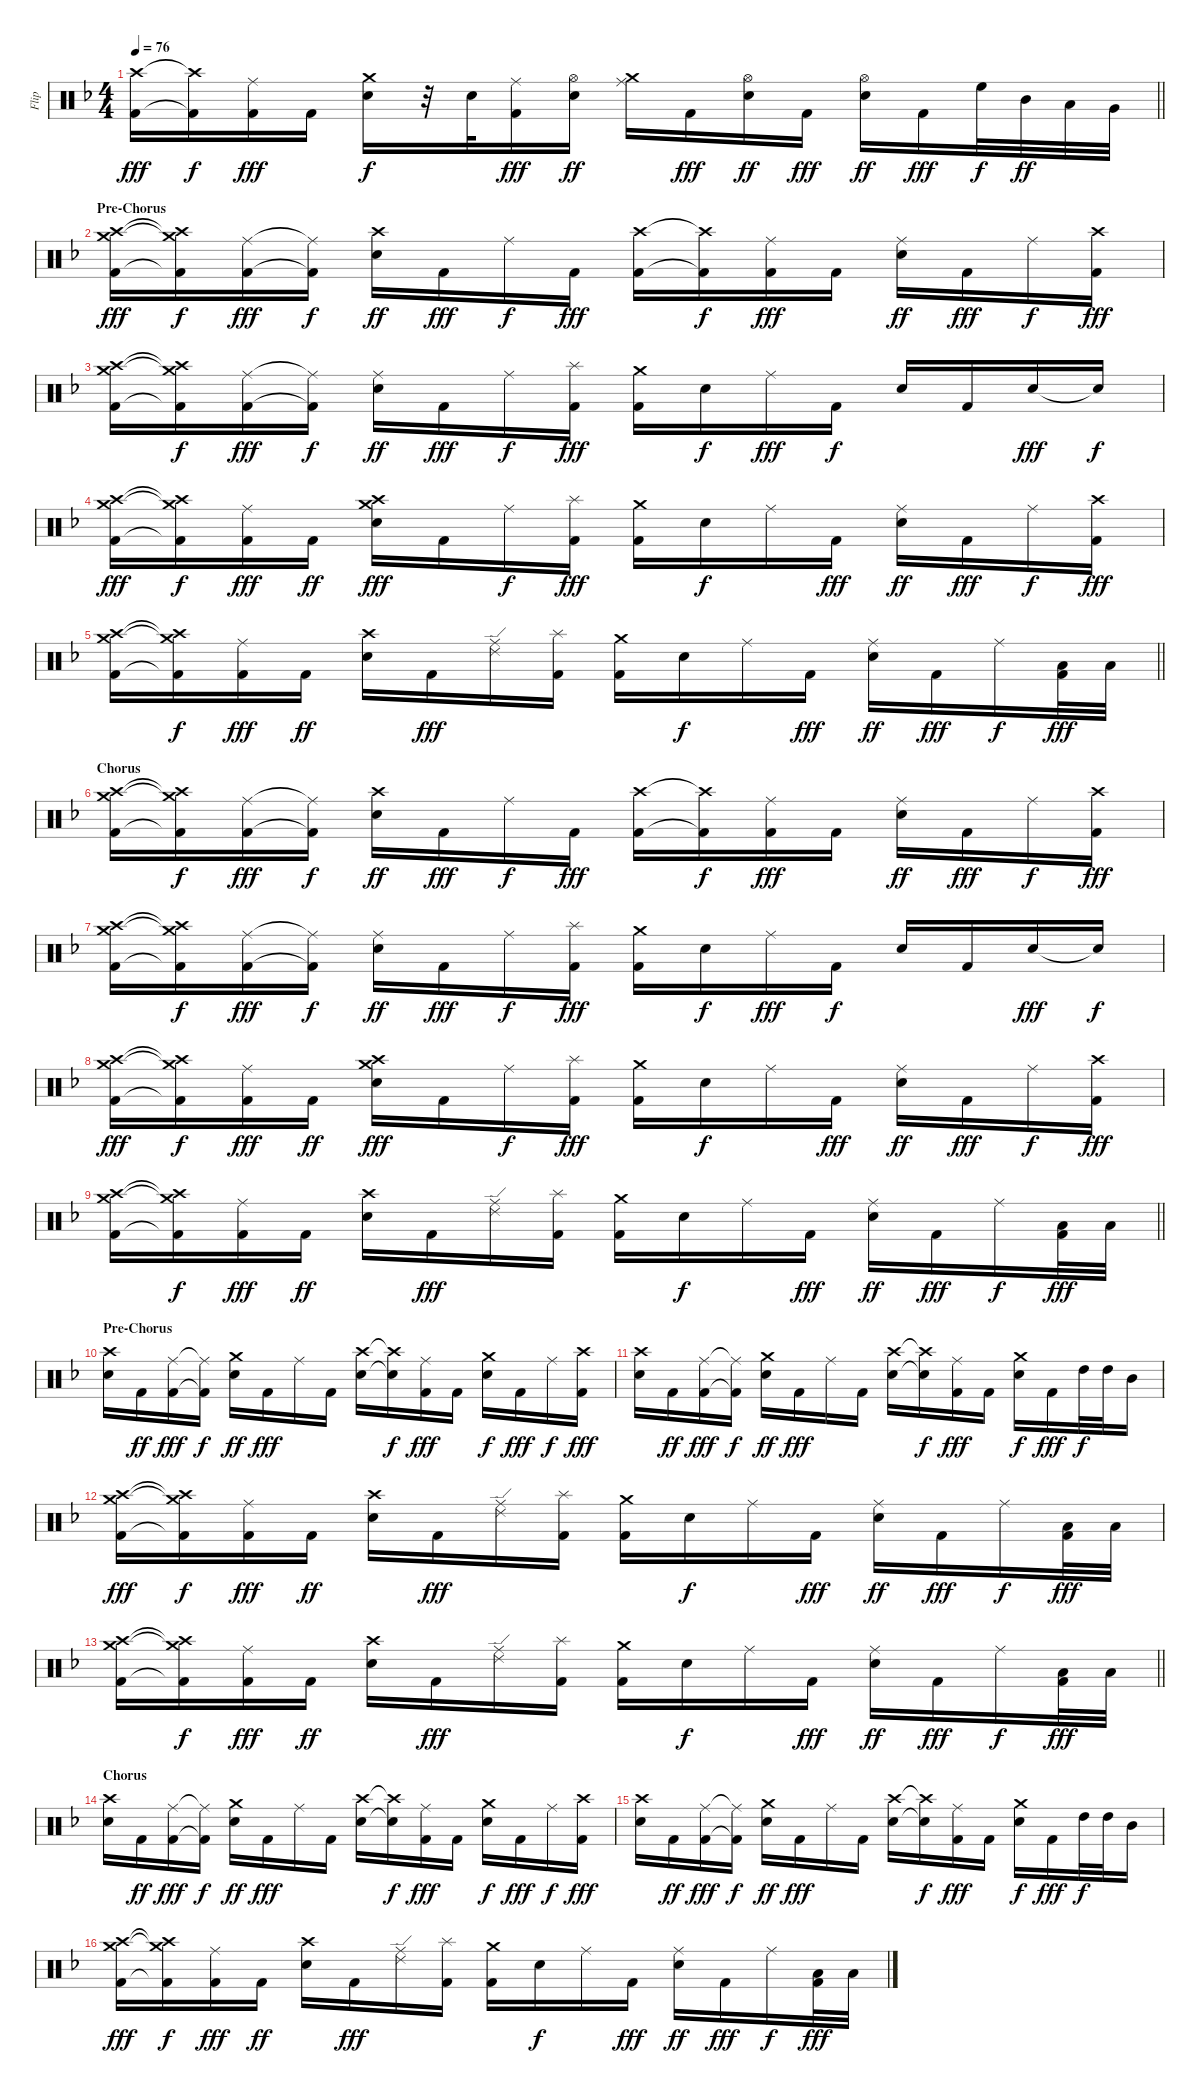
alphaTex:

\track ("Flip" "Flip") {instrument percussion}
\staff {score}
\articulation defaults
\ts (4 4)
\tempo 76
\clef neutral
\barLineRight lightlight
\ks f
("Crash high (hit)" "Kick (hit) 2").16{dy fff} ("Crash high (hit)"{t} "Kick (hit) 2"{t}).16{dy f} ("Ride (middle)" "Kick (hit) 2").16{dy fff} "Kick (hit) 2".16 ("Crash medium (hit)" "Snare (hit) 2").16{dy f} r.32 "Snare (hit) 2".32 ("Ride (middle)" "Kick (hit) 2").16{dy fff} ("Hi-Hat (open)" "Snare (hit) 2").16{dy ff} ("Crash medium (hit)" "Ride (middle)").16 "Kick (hit) 2".16{dy fff} ("Hi-Hat (open)" "Snare (hit) 2").16{dy ff} "Kick (hit) 2".16{dy fff} ("Hi-Hat (open)" "Snare (hit) 2").16{dy ff} "Kick (hit) 2".16{dy fff} "High Floor Tom (hit)".32{dy f} "Mid Tom (hit)".32{dy ff} "Low Tom (hit)".32 "Very Low Tom (hit)".32 |
\section ("" "Pre-Chorus")
("Crash medium (hit)" "Crash high (hit)" "Kick (hit) 2").16{dy fff} ("Crash medium (hit)"{t} "Crash high (hit)"{t} "Kick (hit) 2"{t}).16{dy f} ("Ride (middle)" "Kick (hit) 2").16{dy fff} ("Ride (middle)"{t} "Kick (hit) 2"{t}).16{dy f} ("Crash high (hit)" "Snare (hit) 2").16{dy ff} "Kick (hit) 2".16{dy fff} "Ride (middle)".16{dy f} "Kick (hit) 2".16{dy fff} ("Crash high (hit)" "Kick (hit) 2").16 ("Crash high (hit)"{t} "Kick (hit) 2"{t}).16{dy f} ("Ride (middle)" "Kick (hit) 2").16{dy fff} "Kick (hit) 2".16 ("Ride (middle)" "Snare (hit) 2").16{dy ff} "Kick (hit) 2".16{dy fff} "Ride (middle)".16{dy f} ("Crash high (hit)" "Kick (hit) 2").16{dy fff} |
("Crash medium (hit)" "Crash high (hit)" "Kick (hit) 2").16 ("Crash medium (hit)"{t} "Crash high (hit)"{t} "Kick (hit) 2"{t}).16{dy f} ("Ride (middle)" "Kick (hit) 2").16{dy fff} ("Ride (middle)"{t} "Kick (hit) 2"{t}).16{dy f} ("Ride (middle)" "Snare (hit) 2").16{dy ff} "Kick (hit) 2".16{dy fff} "Ride (middle)".16{dy f} ("Splash (hit)" "Kick (hit) 2").16{dy fff} ("Crash medium (hit)" "Kick (hit) 2").16 "Snare (hit) 2".16{dy f} "Ride (middle)".16{dy fff} "Kick (hit) 2".16{dy f} "Snare (hit) 2".16 "Kick (hit) 2".16 "Snare (hit) 2".16{dy fff} "Snare (hit) 2"{t}.16{dy f} |
("Crash medium (hit)" "Crash high (hit)" "Kick (hit) 2").16{dy fff} ("Crash medium (hit)"{t} "Crash high (hit)"{t} "Kick (hit) 2"{t}).16{dy f} ("Ride (middle)" "Kick (hit) 2").16{dy fff} "Kick (hit) 2".16{dy ff} ("Crash high (hit)" "Crash medium (hit)" "Snare (hit) 2").16{dy fff} "Kick (hit) 2".16 "Ride (middle)".16{dy f} ("Splash (hit)" "Kick (hit) 2").16{dy fff} ("Crash medium (hit)" "Kick (hit) 2").16 "Snare (hit) 2".16{dy f} "Ride (middle)".16 "Kick (hit) 2".16{dy fff} ("Ride (middle)" "Snare (hit) 2").16{dy ff} "Kick (hit) 2".16{dy fff} "Ride (middle)".16{dy f} ("Crash high (hit)" "Kick (hit) 2").16{dy fff} |
\barLineRight lightlight
("Crash medium (hit)" "Crash high (hit)" "Kick (hit) 2").16 ("Crash medium (hit)"{t} "Crash high (hit)"{t} "Kick (hit) 2"{t}).16{dy f} ("Ride (middle)" "Kick (hit) 2").16{dy fff} "Kick (hit) 2".16{dy ff} ("Crash high (hit)" "Snare (hit) 2").16 "Kick (hit) 2".16{dy fff} ("Ride (middle)" "Ride (edge) 2").16 ("Splash (hit)" "Kick (hit) 2").16 ("Crash medium (hit)" "Kick (hit) 2").16 "Snare (hit) 2".16{dy f} "Ride (middle)".16 "Kick (hit) 2".16{dy fff} ("Ride (middle)" "Snare (hit) 2").16{dy ff} "Kick (hit) 2".16{dy fff} "Ride (middle)".16{dy f} ("Low Tom (hit)" "Kick (hit) 2").32{dy fff} "Low Tom (hit)".32 |
\section ("" "Chorus")
("Crash medium (hit)" "Crash high (hit)" "Kick (hit) 2").16 ("Crash medium (hit)"{t} "Crash high (hit)"{t} "Kick (hit) 2"{t}).16{dy f} ("Ride (middle)" "Kick (hit) 2").16{dy fff} ("Ride (middle)"{t} "Kick (hit) 2"{t}).16{dy f} ("Crash high (hit)" "Snare (hit) 2").16{dy ff} "Kick (hit) 2".16{dy fff} "Ride (middle)".16{dy f} "Kick (hit) 2".16{dy fff} ("Crash high (hit)" "Kick (hit) 2").16 ("Crash high (hit)"{t} "Kick (hit) 2"{t}).16{dy f} ("Ride (middle)" "Kick (hit) 2").16{dy fff} "Kick (hit) 2".16 ("Ride (middle)" "Snare (hit) 2").16{dy ff} "Kick (hit) 2".16{dy fff} "Ride (middle)".16{dy f} ("Crash high (hit)" "Kick (hit) 2").16{dy fff} |
("Crash medium (hit)" "Crash high (hit)" "Kick (hit) 2").16 ("Crash medium (hit)"{t} "Crash high (hit)"{t} "Kick (hit) 2"{t}).16{dy f} ("Ride (middle)" "Kick (hit) 2").16{dy fff} ("Ride (middle)"{t} "Kick (hit) 2"{t}).16{dy f} ("Ride (middle)" "Snare (hit) 2").16{dy ff} "Kick (hit) 2".16{dy fff} "Ride (middle)".16{dy f} ("Splash (hit)" "Kick (hit) 2").16{dy fff} ("Crash medium (hit)" "Kick (hit) 2").16 "Snare (hit) 2".16{dy f} "Ride (middle)".16{dy fff} "Kick (hit) 2".16{dy f} "Snare (hit) 2".16 "Kick (hit) 2".16 "Snare (hit) 2".16{dy fff} "Snare (hit) 2"{t}.16{dy f} |
("Crash medium (hit)" "Crash high (hit)" "Kick (hit) 2").16{dy fff} ("Crash medium (hit)"{t} "Crash high (hit)"{t} "Kick (hit) 2"{t}).16{dy f} ("Ride (middle)" "Kick (hit) 2").16{dy fff} "Kick (hit) 2".16{dy ff} ("Crash high (hit)" "Crash medium (hit)" "Snare (hit) 2").16{dy fff} "Kick (hit) 2".16 "Ride (middle)".16{dy f} ("Splash (hit)" "Kick (hit) 2").16{dy fff} ("Crash medium (hit)" "Kick (hit) 2").16 "Snare (hit) 2".16{dy f} "Ride (middle)".16 "Kick (hit) 2".16{dy fff} ("Ride (middle)" "Snare (hit) 2").16{dy ff} "Kick (hit) 2".16{dy fff} "Ride (middle)".16{dy f} ("Crash high (hit)" "Kick (hit) 2").16{dy fff} |
\barLineRight lightlight
("Crash medium (hit)" "Crash high (hit)" "Kick (hit) 2").16 ("Crash medium (hit)"{t} "Crash high (hit)"{t} "Kick (hit) 2"{t}).16{dy f} ("Ride (middle)" "Kick (hit) 2").16{dy fff} "Kick (hit) 2".16{dy ff} ("Crash high (hit)" "Snare (hit) 2").16 "Kick (hit) 2".16{dy fff} ("Ride (middle)" "Ride (edge) 2").16 ("Splash (hit)" "Kick (hit) 2").16 ("Crash medium (hit)" "Kick (hit) 2").16 "Snare (hit) 2".16{dy f} "Ride (middle)".16 "Kick (hit) 2".16{dy fff} ("Ride (middle)" "Snare (hit) 2").16{dy ff} "Kick (hit) 2".16{dy fff} "Ride (middle)".16{dy f} ("Low Tom (hit)" "Kick (hit) 2").32{dy fff} "Low Tom (hit)".32 |
\section ("" "Pre-Chorus")
("Crash high (hit)" "Snare (hit) 2").16 "Kick (hit) 2".16{dy ff} ("Ride (middle)" "Kick (hit) 2").16{dy fff} ("Ride (middle)"{t} "Kick (hit) 2"{t}).16{dy f} ("Crash medium (hit)" "Snare (hit) 2").16{dy ff} "Kick (hit) 2".16{dy fff} "Ride (middle)".16 "Kick (hit) 2".16 ("Crash high (hit)" "Snare (hit) 2").16 ("Crash high (hit)"{t} "Snare (hit) 2"{t}).16{dy f} ("Ride (middle)" "Kick (hit) 2").16{dy fff} "Kick (hit) 2".16 ("Crash medium (hit)" "Snare (hit) 2").16{dy f} "Kick (hit) 2".16{dy fff} "Ride (middle)".16{dy f} ("Crash high (hit)" "Kick (hit) 2").16{dy fff} |
("Crash high (hit)" "Snare (hit) 2").16 "Kick (hit) 2".16{dy ff} ("Ride (middle)" "Kick (hit) 2").16{dy fff} ("Ride (middle)"{t} "Kick (hit) 2"{t}).16{dy f} ("Crash medium (hit)" "Snare (hit) 2").16{dy ff} "Kick (hit) 2".16{dy fff} "Ride (middle)".16 "Kick (hit) 2".16 ("Crash high (hit)" "Snare (hit) 2").16 ("Crash high (hit)"{t} "Snare (hit) 2"{t}).16{dy f} ("Ride (middle)" "Kick (hit) 2").16{dy fff} "Kick (hit) 2".16 ("Crash medium (hit)" "Snare (hit) 2").16{dy f} "Kick (hit) 2".16{dy fff} "High Tom (hit)".32{dy f} "High Tom (hit)".32 "Mid Tom (hit)".16 |
("Crash medium (hit)" "Crash high (hit)" "Kick (hit) 2").16{dy fff} ("Crash medium (hit)"{t} "Crash high (hit)"{t} "Kick (hit) 2"{t}).16{dy f} ("Ride (middle)" "Kick (hit) 2").16{dy fff} "Kick (hit) 2".16{dy ff} ("Crash high (hit)" "Snare (hit) 2").16 "Kick (hit) 2".16{dy fff} ("Ride (middle)" "Ride (edge) 2").16 ("Splash (hit)" "Kick (hit) 2").16 ("Crash medium (hit)" "Kick (hit) 2").16 "Snare (hit) 2".16{dy f} "Ride (middle)".16 "Kick (hit) 2".16{dy fff} ("Ride (middle)" "Snare (hit) 2").16{dy ff} "Kick (hit) 2".16{dy fff} "Ride (middle)".16{dy f} ("Low Tom (hit)" "Kick (hit) 2").32{dy fff} "Low Tom (hit)".32 |
\barLineRight lightlight
("Crash medium (hit)" "Crash high (hit)" "Kick (hit) 2").16 ("Crash medium (hit)"{t} "Crash high (hit)"{t} "Kick (hit) 2"{t}).16{dy f} ("Ride (middle)" "Kick (hit) 2").16{dy fff} "Kick (hit) 2".16{dy ff} ("Crash high (hit)" "Snare (hit) 2").16 "Kick (hit) 2".16{dy fff} ("Ride (middle)" "Ride (edge) 2").16 ("Splash (hit)" "Kick (hit) 2").16 ("Crash medium (hit)" "Kick (hit) 2").16 "Snare (hit) 2".16{dy f} "Ride (middle)".16 "Kick (hit) 2".16{dy fff} ("Ride (middle)" "Snare (hit) 2").16{dy ff} "Kick (hit) 2".16{dy fff} "Ride (middle)".16{dy f} ("Low Tom (hit)" "Kick (hit) 2").32{dy fff} "Low Tom (hit)".32 |
\section ("" "Chorus")
("Crash high (hit)" "Snare (hit) 2").16 "Kick (hit) 2".16{dy ff} ("Ride (middle)" "Kick (hit) 2").16{dy fff} ("Ride (middle)"{t} "Kick (hit) 2"{t}).16{dy f} ("Crash medium (hit)" "Snare (hit) 2").16{dy ff} "Kick (hit) 2".16{dy fff} "Ride (middle)".16 "Kick (hit) 2".16 ("Crash high (hit)" "Snare (hit) 2").16 ("Crash high (hit)"{t} "Snare (hit) 2"{t}).16{dy f} ("Ride (middle)" "Kick (hit) 2").16{dy fff} "Kick (hit) 2".16 ("Crash medium (hit)" "Snare (hit) 2").16{dy f} "Kick (hit) 2".16{dy fff} "Ride (middle)".16{dy f} ("Crash high (hit)" "Kick (hit) 2").16{dy fff} |
("Crash high (hit)" "Snare (hit) 2").16 "Kick (hit) 2".16{dy ff} ("Ride (middle)" "Kick (hit) 2").16{dy fff} ("Ride (middle)"{t} "Kick (hit) 2"{t}).16{dy f} ("Crash medium (hit)" "Snare (hit) 2").16{dy ff} "Kick (hit) 2".16{dy fff} "Ride (middle)".16 "Kick (hit) 2".16 ("Crash high (hit)" "Snare (hit) 2").16 ("Crash high (hit)"{t} "Snare (hit) 2"{t}).16{dy f} ("Ride (middle)" "Kick (hit) 2").16{dy fff} "Kick (hit) 2".16 ("Crash medium (hit)" "Snare (hit) 2").16{dy f} "Kick (hit) 2".16{dy fff} "High Tom (hit)".32{dy f} "High Tom (hit)".32 "Mid Tom (hit)".16 |
("Crash medium (hit)" "Crash high (hit)" "Kick (hit) 2").16{dy fff} ("Crash medium (hit)"{t} "Crash high (hit)"{t} "Kick (hit) 2"{t}).16{dy f} ("Ride (middle)" "Kick (hit) 2").16{dy fff} "Kick (hit) 2".16{dy ff} ("Crash high (hit)" "Snare (hit) 2").16 "Kick (hit) 2".16{dy fff} ("Ride (middle)" "Ride (edge) 2").16 ("Splash (hit)" "Kick (hit) 2").16 ("Crash medium (hit)" "Kick (hit) 2").16 "Snare (hit) 2".16{dy f} "Ride (middle)".16 "Kick (hit) 2".16{dy fff} ("Ride (middle)" "Snare (hit) 2").16{dy ff} "Kick (hit) 2".16{dy fff} "Ride (middle)".16{dy f} ("Low Tom (hit)" "Kick (hit) 2").32{dy fff} "Low Tom (hit)".32
